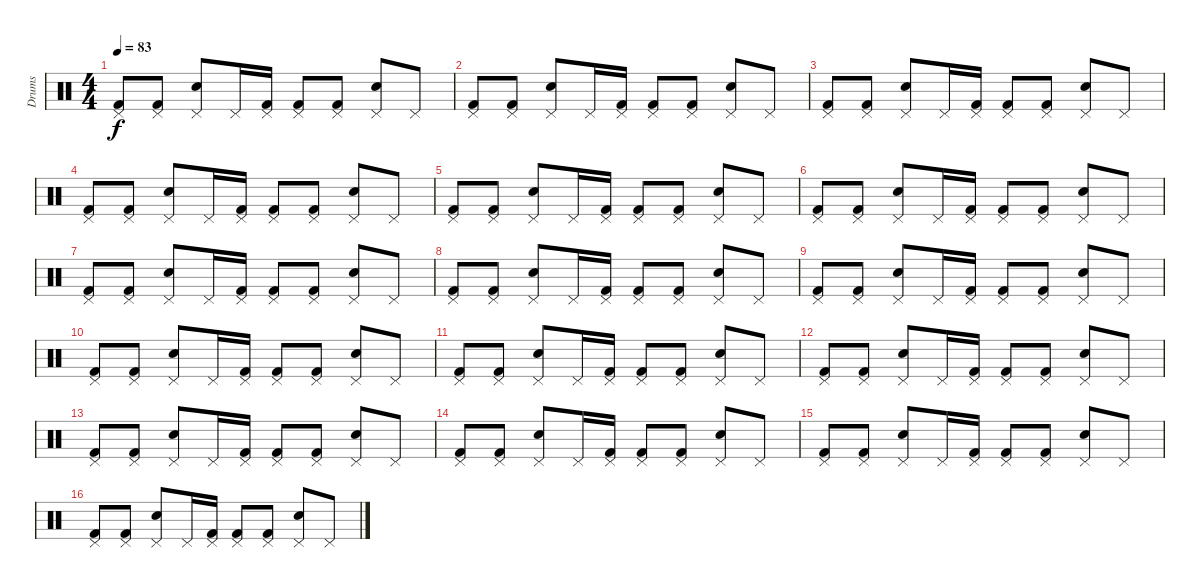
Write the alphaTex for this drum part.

\track ("Drums" "Drums") {instrument percussion}
\staff {score}
\articulation defaults
\ts (4 4)
\tempo 83
\clef neutral
\ks c
("Kick (hit) 2" "Pedal Hi-Hat (hit)").8{dy f} ("Kick (hit) 2" "Pedal Hi-Hat (hit)").8 ("Snare (hit) 2" "Pedal Hi-Hat (hit)").8 "Pedal Hi-Hat (hit)".16 ("Kick (hit) 2" "Pedal Hi-Hat (hit)").16 ("Kick (hit) 2" "Pedal Hi-Hat (hit)").8 ("Kick (hit) 2" "Pedal Hi-Hat (hit)").8 ("Snare (hit) 2" "Pedal Hi-Hat (hit)").8 "Pedal Hi-Hat (hit)".8 |
("Kick (hit) 2" "Pedal Hi-Hat (hit)").8 ("Kick (hit) 2" "Pedal Hi-Hat (hit)").8 ("Snare (hit) 2" "Pedal Hi-Hat (hit)").8 "Pedal Hi-Hat (hit)".16 ("Kick (hit) 2" "Pedal Hi-Hat (hit)").16 ("Kick (hit) 2" "Pedal Hi-Hat (hit)").8 ("Kick (hit) 2" "Pedal Hi-Hat (hit)").8 ("Snare (hit) 2" "Pedal Hi-Hat (hit)").8 "Pedal Hi-Hat (hit)".8 |
("Kick (hit) 2" "Pedal Hi-Hat (hit)").8 ("Kick (hit) 2" "Pedal Hi-Hat (hit)").8 ("Snare (hit) 2" "Pedal Hi-Hat (hit)").8 "Pedal Hi-Hat (hit)".16 ("Kick (hit) 2" "Pedal Hi-Hat (hit)").16 ("Kick (hit) 2" "Pedal Hi-Hat (hit)").8 ("Kick (hit) 2" "Pedal Hi-Hat (hit)").8 ("Snare (hit) 2" "Pedal Hi-Hat (hit)").8 "Pedal Hi-Hat (hit)".8 |
("Kick (hit) 2" "Pedal Hi-Hat (hit)").8 ("Kick (hit) 2" "Pedal Hi-Hat (hit)").8 ("Snare (hit) 2" "Pedal Hi-Hat (hit)").8 "Pedal Hi-Hat (hit)".16 ("Kick (hit) 2" "Pedal Hi-Hat (hit)").16 ("Kick (hit) 2" "Pedal Hi-Hat (hit)").8 ("Kick (hit) 2" "Pedal Hi-Hat (hit)").8 ("Snare (hit) 2" "Pedal Hi-Hat (hit)").8 "Pedal Hi-Hat (hit)".8 |
("Kick (hit) 2" "Pedal Hi-Hat (hit)").8 ("Kick (hit) 2" "Pedal Hi-Hat (hit)").8 ("Snare (hit) 2" "Pedal Hi-Hat (hit)").8 "Pedal Hi-Hat (hit)".16 ("Kick (hit) 2" "Pedal Hi-Hat (hit)").16 ("Kick (hit) 2" "Pedal Hi-Hat (hit)").8 ("Kick (hit) 2" "Pedal Hi-Hat (hit)").8 ("Snare (hit) 2" "Pedal Hi-Hat (hit)").8 "Pedal Hi-Hat (hit)".8 |
("Kick (hit) 2" "Pedal Hi-Hat (hit)").8 ("Kick (hit) 2" "Pedal Hi-Hat (hit)").8 ("Snare (hit) 2" "Pedal Hi-Hat (hit)").8 "Pedal Hi-Hat (hit)".16 ("Kick (hit) 2" "Pedal Hi-Hat (hit)").16 ("Kick (hit) 2" "Pedal Hi-Hat (hit)").8 ("Kick (hit) 2" "Pedal Hi-Hat (hit)").8 ("Snare (hit) 2" "Pedal Hi-Hat (hit)").8 "Pedal Hi-Hat (hit)".8 |
("Kick (hit) 2" "Pedal Hi-Hat (hit)").8 ("Kick (hit) 2" "Pedal Hi-Hat (hit)").8 ("Snare (hit) 2" "Pedal Hi-Hat (hit)").8 "Pedal Hi-Hat (hit)".16 ("Kick (hit) 2" "Pedal Hi-Hat (hit)").16 ("Kick (hit) 2" "Pedal Hi-Hat (hit)").8 ("Kick (hit) 2" "Pedal Hi-Hat (hit)").8 ("Snare (hit) 2" "Pedal Hi-Hat (hit)").8 "Pedal Hi-Hat (hit)".8 |
("Kick (hit) 2" "Pedal Hi-Hat (hit)").8 ("Kick (hit) 2" "Pedal Hi-Hat (hit)").8 ("Snare (hit) 2" "Pedal Hi-Hat (hit)").8 "Pedal Hi-Hat (hit)".16 ("Kick (hit) 2" "Pedal Hi-Hat (hit)").16 ("Kick (hit) 2" "Pedal Hi-Hat (hit)").8 ("Kick (hit) 2" "Pedal Hi-Hat (hit)").8 ("Snare (hit) 2" "Pedal Hi-Hat (hit)").8 "Pedal Hi-Hat (hit)".8 |
("Kick (hit) 2" "Pedal Hi-Hat (hit)").8 ("Kick (hit) 2" "Pedal Hi-Hat (hit)").8 ("Snare (hit) 2" "Pedal Hi-Hat (hit)").8 "Pedal Hi-Hat (hit)".16 ("Kick (hit) 2" "Pedal Hi-Hat (hit)").16 ("Kick (hit) 2" "Pedal Hi-Hat (hit)").8 ("Kick (hit) 2" "Pedal Hi-Hat (hit)").8 ("Snare (hit) 2" "Pedal Hi-Hat (hit)").8 "Pedal Hi-Hat (hit)".8 |
("Kick (hit) 2" "Pedal Hi-Hat (hit)").8 ("Kick (hit) 2" "Pedal Hi-Hat (hit)").8 ("Snare (hit) 2" "Pedal Hi-Hat (hit)").8 "Pedal Hi-Hat (hit)".16 ("Kick (hit) 2" "Pedal Hi-Hat (hit)").16 ("Kick (hit) 2" "Pedal Hi-Hat (hit)").8 ("Kick (hit) 2" "Pedal Hi-Hat (hit)").8 ("Snare (hit) 2" "Pedal Hi-Hat (hit)").8 "Pedal Hi-Hat (hit)".8 |
("Kick (hit) 2" "Pedal Hi-Hat (hit)").8 ("Kick (hit) 2" "Pedal Hi-Hat (hit)").8 ("Snare (hit) 2" "Pedal Hi-Hat (hit)").8 "Pedal Hi-Hat (hit)".16 ("Kick (hit) 2" "Pedal Hi-Hat (hit)").16 ("Kick (hit) 2" "Pedal Hi-Hat (hit)").8 ("Kick (hit) 2" "Pedal Hi-Hat (hit)").8 ("Snare (hit) 2" "Pedal Hi-Hat (hit)").8 "Pedal Hi-Hat (hit)".8 |
("Kick (hit) 2" "Pedal Hi-Hat (hit)").8 ("Kick (hit) 2" "Pedal Hi-Hat (hit)").8 ("Snare (hit) 2" "Pedal Hi-Hat (hit)").8 "Pedal Hi-Hat (hit)".16 ("Kick (hit) 2" "Pedal Hi-Hat (hit)").16 ("Kick (hit) 2" "Pedal Hi-Hat (hit)").8 ("Kick (hit) 2" "Pedal Hi-Hat (hit)").8 ("Snare (hit) 2" "Pedal Hi-Hat (hit)").8 "Pedal Hi-Hat (hit)".8 |
("Kick (hit) 2" "Pedal Hi-Hat (hit)").8 ("Kick (hit) 2" "Pedal Hi-Hat (hit)").8 ("Snare (hit) 2" "Pedal Hi-Hat (hit)").8 "Pedal Hi-Hat (hit)".16 ("Kick (hit) 2" "Pedal Hi-Hat (hit)").16 ("Kick (hit) 2" "Pedal Hi-Hat (hit)").8 ("Kick (hit) 2" "Pedal Hi-Hat (hit)").8 ("Snare (hit) 2" "Pedal Hi-Hat (hit)").8 "Pedal Hi-Hat (hit)".8 |
("Kick (hit) 2" "Pedal Hi-Hat (hit)").8 ("Kick (hit) 2" "Pedal Hi-Hat (hit)").8 ("Snare (hit) 2" "Pedal Hi-Hat (hit)").8 "Pedal Hi-Hat (hit)".16 ("Kick (hit) 2" "Pedal Hi-Hat (hit)").16 ("Kick (hit) 2" "Pedal Hi-Hat (hit)").8 ("Kick (hit) 2" "Pedal Hi-Hat (hit)").8 ("Snare (hit) 2" "Pedal Hi-Hat (hit)").8 "Pedal Hi-Hat (hit)".8 |
("Kick (hit) 2" "Pedal Hi-Hat (hit)").8 ("Kick (hit) 2" "Pedal Hi-Hat (hit)").8 ("Snare (hit) 2" "Pedal Hi-Hat (hit)").8 "Pedal Hi-Hat (hit)".16 ("Kick (hit) 2" "Pedal Hi-Hat (hit)").16 ("Kick (hit) 2" "Pedal Hi-Hat (hit)").8 ("Kick (hit) 2" "Pedal Hi-Hat (hit)").8 ("Snare (hit) 2" "Pedal Hi-Hat (hit)").8 "Pedal Hi-Hat (hit)".8 |
("Kick (hit) 2" "Pedal Hi-Hat (hit)").8 ("Kick (hit) 2" "Pedal Hi-Hat (hit)").8 ("Snare (hit) 2" "Pedal Hi-Hat (hit)").8 "Pedal Hi-Hat (hit)".16 ("Kick (hit) 2" "Pedal Hi-Hat (hit)").16 ("Kick (hit) 2" "Pedal Hi-Hat (hit)").8 ("Kick (hit) 2" "Pedal Hi-Hat (hit)").8 ("Snare (hit) 2" "Pedal Hi-Hat (hit)").8 "Pedal Hi-Hat (hit)".8
